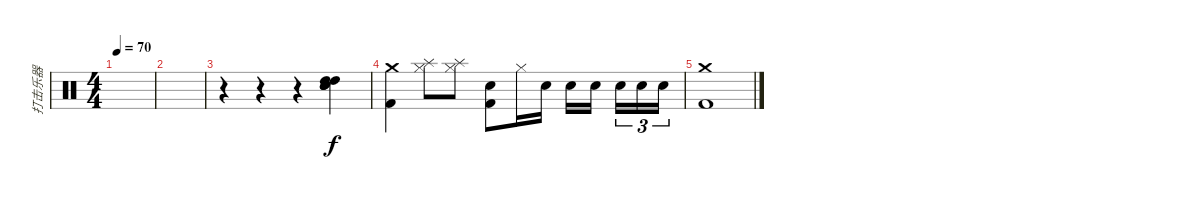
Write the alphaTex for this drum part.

\track ("打击乐器" "打击乐器") {instrument percussion}
\staff {score}
\articulation defaults
\ts (4 4)
\tempo 70
\clef neutral
\ks c
|
|
r.4 r.4 r.4 ("Electric Snare (hit)" "High Tom (hit)" "High Tom (hit)" "Electric Snare (hit)" "Electric Snare (hit)").4 |
("Crash medium (hit)" "Kick (hit) 2").4 ("Hi-Hat (closed)" "Splash (hit)").8 ("Hi-Hat (closed)" "Splash (hit)").8 ("Electric Snare (hit)" "Kick (hit) 2").8 "Hi-Hat (closed)".16 "Electric Snare (hit)".16 "Electric Snare (hit)".16 "Electric Snare (hit)".16{beam splitsecondary} "Snare (hit) 2".16{tu (3 2)} "Snare (hit) 2".16{tu (3 2)} "Snare (hit) 2".16{tu (3 2)} |
("Crash medium (hit)" "Kick (hit) 2").1
